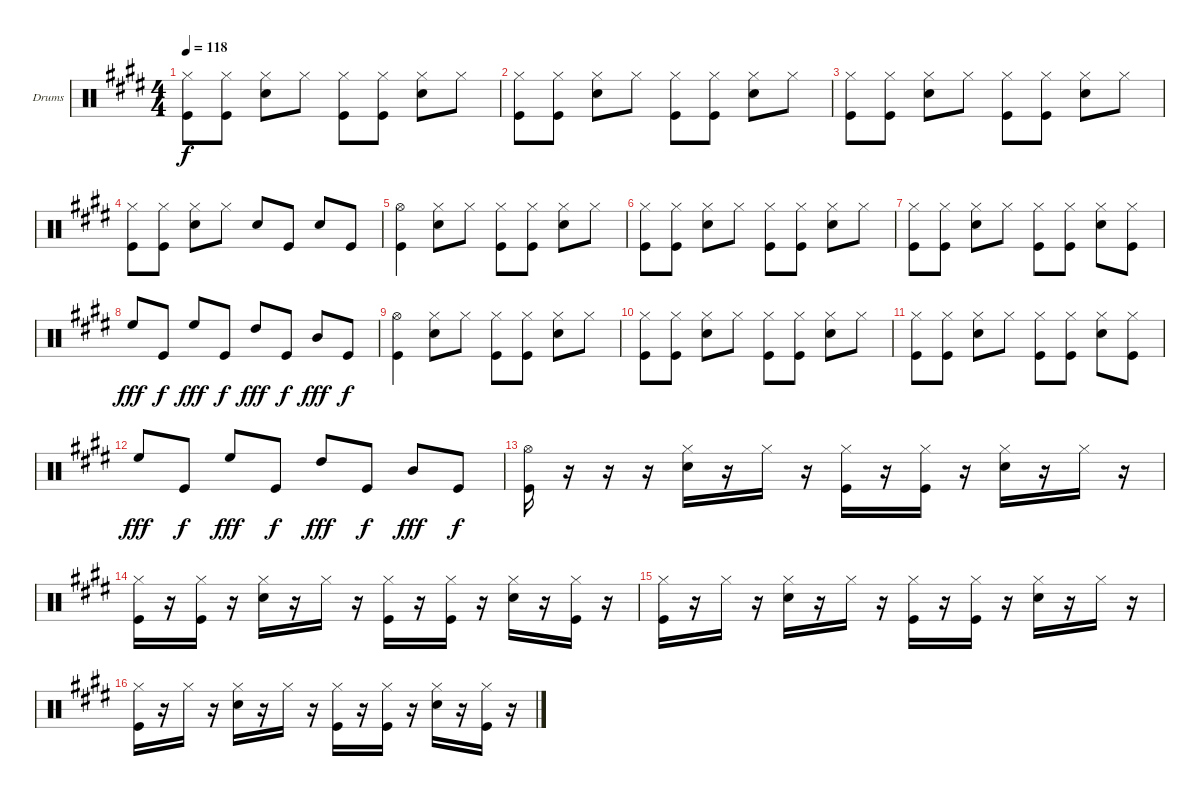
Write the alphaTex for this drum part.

\bracketExtendMode groupsimilarinstruments
\firstSystemTrackNameOrientation horizontal
\otherSystemsTrackNameOrientation horizontal
\track ("Drumkit" "Drums") {instrument percussion}
\staff {score}
\articulation defaults
\ts (4 4)
\tempo 118
\clef neutral
\ks e
("Hi-Hat (closed)" "Kick (hit)").8{dy f} ("Hi-Hat (closed)" "Kick (hit)").8 ("Hi-Hat (closed)" "Snare (hit) 2").8 "Hi-Hat (closed)".8 ("Hi-Hat (closed)" "Kick (hit)").8 ("Hi-Hat (closed)" "Kick (hit)").8 ("Hi-Hat (closed)" "Snare (hit) 2").8 "Hi-Hat (closed)".8 |
("Hi-Hat (closed)" "Kick (hit)").8 ("Hi-Hat (closed)" "Kick (hit)").8 ("Hi-Hat (closed)" "Snare (hit) 2").8 "Hi-Hat (closed)".8 ("Hi-Hat (closed)" "Kick (hit)").8 ("Hi-Hat (closed)" "Kick (hit)").8 ("Hi-Hat (closed)" "Snare (hit) 2").8 "Hi-Hat (closed)".8 |
("Hi-Hat (closed)" "Kick (hit)").8 ("Hi-Hat (closed)" "Kick (hit)").8 ("Hi-Hat (closed)" "Snare (hit) 2").8 "Hi-Hat (closed)".8 ("Hi-Hat (closed)" "Kick (hit)").8 ("Hi-Hat (closed)" "Kick (hit)").8 ("Hi-Hat (closed)" "Snare (hit) 2").8 "Hi-Hat (closed)".8 |
("Hi-Hat (closed)" "Kick (hit)").8 ("Hi-Hat (closed)" "Kick (hit)").8 ("Hi-Hat (closed)" "Snare (hit) 2").8 "Hi-Hat (closed)".8 "Snare (hit) 2".8 "Kick (hit)".8 "Snare (hit) 2".8 "Kick (hit)".8 |
("Hi-Hat (open)" "Kick (hit)").4 ("Hi-Hat (closed)" "Snare (hit) 2").8 "Hi-Hat (closed)".8 ("Hi-Hat (closed)" "Kick (hit)").8 ("Hi-Hat (closed)" "Kick (hit)").8 ("Hi-Hat (closed)" "Snare (hit) 2").8 "Hi-Hat (closed)".8 |
("Hi-Hat (closed)" "Kick (hit)").8 ("Hi-Hat (closed)" "Kick (hit)").8 ("Hi-Hat (closed)" "Snare (hit) 2").8 "Hi-Hat (closed)".8 ("Hi-Hat (closed)" "Kick (hit)").8 ("Hi-Hat (closed)" "Kick (hit)").8 ("Hi-Hat (closed)" "Snare (hit) 2").8 "Hi-Hat (closed)".8 |
("Hi-Hat (closed)" "Kick (hit)").8 ("Hi-Hat (closed)" "Kick (hit)").8 ("Hi-Hat (closed)" "Snare (hit) 2").8 "Hi-Hat (closed)".8 ("Hi-Hat (closed)" "Kick (hit)").8 ("Hi-Hat (closed)" "Kick (hit)").8 ("Hi-Hat (closed)" "Snare (hit) 2").8 ("Hi-Hat (closed)" "Kick (hit)").8 |
"High Floor Tom (hit)".8{dy fff} "Kick (hit)".8{dy f} "High Floor Tom (hit)".8{dy fff} "Kick (hit)".8{dy f} "High Tom (hit)".8{dy fff} "Kick (hit)".8{dy f} "Mid Tom (hit)".8{dy fff} "Kick (hit)".8{dy f} |
("Hi-Hat (open)" "Kick (hit)").4 ("Hi-Hat (closed)" "Snare (hit) 2").8 "Hi-Hat (closed)".8 ("Hi-Hat (closed)" "Kick (hit)").8 ("Hi-Hat (closed)" "Kick (hit)").8 ("Hi-Hat (closed)" "Snare (hit) 2").8 "Hi-Hat (closed)".8 |
("Hi-Hat (closed)" "Kick (hit)").8 ("Hi-Hat (closed)" "Kick (hit)").8 ("Hi-Hat (closed)" "Snare (hit) 2").8 "Hi-Hat (closed)".8 ("Hi-Hat (closed)" "Kick (hit)").8 ("Hi-Hat (closed)" "Kick (hit)").8 ("Hi-Hat (closed)" "Snare (hit) 2").8 "Hi-Hat (closed)".8 |
("Hi-Hat (closed)" "Kick (hit)").8 ("Hi-Hat (closed)" "Kick (hit)").8 ("Hi-Hat (closed)" "Snare (hit) 2").8 "Hi-Hat (closed)".8 ("Hi-Hat (closed)" "Kick (hit)").8 ("Hi-Hat (closed)" "Kick (hit)").8 ("Hi-Hat (closed)" "Snare (hit) 2").8 ("Hi-Hat (closed)" "Kick (hit)").8 |
"High Floor Tom (hit)".8{dy fff} "Kick (hit)".8{dy f} "High Floor Tom (hit)".8{dy fff} "Kick (hit)".8{dy f} "High Tom (hit)".8{dy fff} "Kick (hit)".8{dy f} "Mid Tom (hit)".8{dy fff} "Kick (hit)".8{dy f} |
("Hi-Hat (open)" "Kick (hit)").16 r.16 r.16 r.16 ("Hi-Hat (closed)" "Snare (hit) 2").16 r.16 "Hi-Hat (closed)".16 r.16 ("Hi-Hat (closed)" "Kick (hit)").16 r.16 ("Hi-Hat (closed)" "Kick (hit)").16 r.16 ("Hi-Hat (closed)" "Snare (hit) 2").16 r.16 "Hi-Hat (closed)".16 r.16 |
("Hi-Hat (closed)" "Kick (hit)").16 r.16 ("Hi-Hat (closed)" "Kick (hit)").16 r.16 ("Hi-Hat (closed)" "Snare (hit) 2").16 r.16 "Hi-Hat (closed)".16 r.16 ("Hi-Hat (closed)" "Kick (hit)").16 r.16 ("Hi-Hat (closed)" "Kick (hit)").16 r.16 ("Hi-Hat (closed)" "Snare (hit) 2").16 r.16 ("Hi-Hat (closed)" "Kick (hit)").16 r.16 |
("Hi-Hat (closed)" "Kick (hit)").16 r.16 "Hi-Hat (closed)".16 r.16 ("Hi-Hat (closed)" "Snare (hit) 2").16 r.16 "Hi-Hat (closed)".16 r.16 ("Hi-Hat (closed)" "Kick (hit)").16 r.16 ("Hi-Hat (closed)" "Kick (hit)").16 r.16 ("Hi-Hat (closed)" "Snare (hit) 2").16 r.16 "Hi-Hat (closed)".16 r.16 |
("Hi-Hat (closed)" "Kick (hit)").16 r.16 "Hi-Hat (closed)".16 r.16 ("Hi-Hat (closed)" "Snare (hit) 2").16 r.16 "Hi-Hat (closed)".16 r.16 ("Hi-Hat (closed)" "Kick (hit)").16 r.16 ("Hi-Hat (closed)" "Kick (hit)").16 r.16 ("Hi-Hat (closed)" "Snare (hit) 2").16 r.16 ("Hi-Hat (closed)" "Kick (hit)").16 r.16
